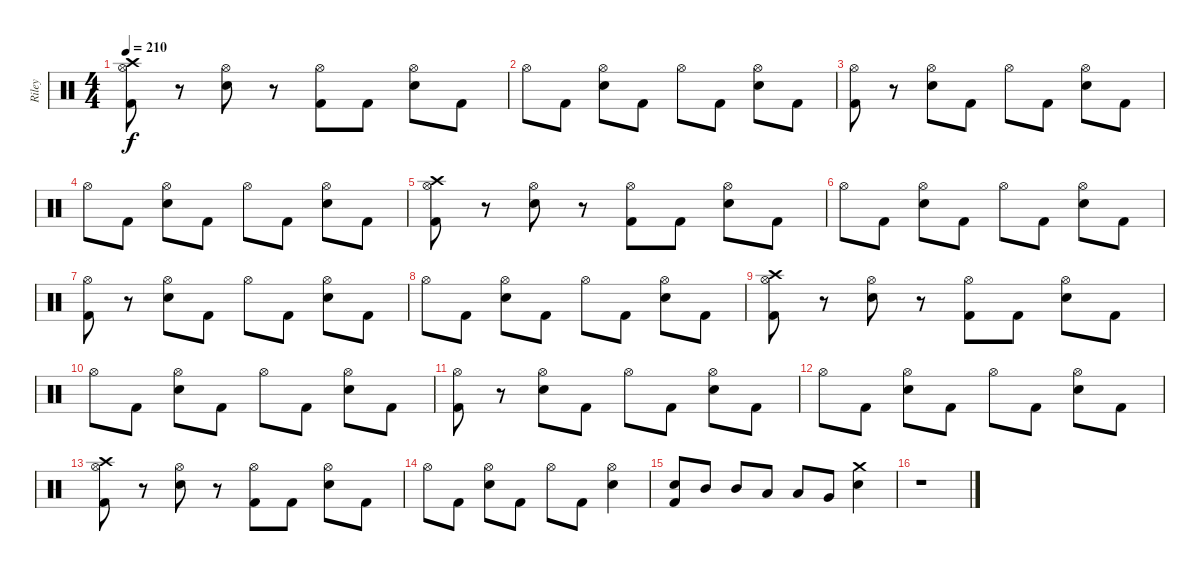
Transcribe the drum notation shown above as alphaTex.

\track ("Riley" "Riley") {instrument percussion}
\staff {score}
\articulation defaults
\ts (4 4)
\tempo 210
\clef neutral
\ks c
("Crash high (hit)" "Hi-Hat (open)" "Kick (hit) 2").8{dy f} r.8 ("Hi-Hat (open)" "Electric Snare (hit)").8 r.8 ("Hi-Hat (open)" "Kick (hit) 2").8 "Kick (hit) 2".8 ("Hi-Hat (open)" "Electric Snare (hit)").8 "Kick (hit) 2".8 |
"Hi-Hat (open)".8 "Kick (hit) 2".8 ("Hi-Hat (open)" "Electric Snare (hit)").8 "Kick (hit) 2".8 "Hi-Hat (open)".8 "Kick (hit) 2".8 ("Hi-Hat (open)" "Electric Snare (hit)").8 "Kick (hit) 2".8 |
("Hi-Hat (open)" "Kick (hit) 2").8 r.8 ("Hi-Hat (open)" "Electric Snare (hit)").8 "Kick (hit) 2".8 "Hi-Hat (open)".8 "Kick (hit) 2".8 ("Hi-Hat (open)" "Electric Snare (hit)").8 "Kick (hit) 2".8 |
"Hi-Hat (open)".8 "Kick (hit) 2".8 ("Hi-Hat (open)" "Electric Snare (hit)").8 "Kick (hit) 2".8 "Hi-Hat (open)".8 "Kick (hit) 2".8 ("Hi-Hat (open)" "Electric Snare (hit)").8 "Kick (hit) 2".8 |
("Crash high (hit)" "Hi-Hat (open)" "Kick (hit) 2").8 r.8 ("Hi-Hat (open)" "Electric Snare (hit)").8 r.8 ("Hi-Hat (open)" "Kick (hit) 2").8 "Kick (hit) 2".8 ("Hi-Hat (open)" "Electric Snare (hit)").8 "Kick (hit) 2".8 |
"Hi-Hat (open)".8 "Kick (hit) 2".8 ("Hi-Hat (open)" "Electric Snare (hit)").8 "Kick (hit) 2".8 "Hi-Hat (open)".8 "Kick (hit) 2".8 ("Hi-Hat (open)" "Electric Snare (hit)").8 "Kick (hit) 2".8 |
("Hi-Hat (open)" "Kick (hit) 2").8 r.8 ("Hi-Hat (open)" "Electric Snare (hit)").8 "Kick (hit) 2".8 "Hi-Hat (open)".8 "Kick (hit) 2".8 ("Hi-Hat (open)" "Electric Snare (hit)").8 "Kick (hit) 2".8 |
"Hi-Hat (open)".8 "Kick (hit) 2".8 ("Hi-Hat (open)" "Electric Snare (hit)").8 "Kick (hit) 2".8 "Hi-Hat (open)".8 "Kick (hit) 2".8 ("Hi-Hat (open)" "Electric Snare (hit)").8 "Kick (hit) 2".8 |
("Crash high (hit)" "Hi-Hat (open)" "Kick (hit) 2").8 r.8 ("Hi-Hat (open)" "Electric Snare (hit)").8 r.8 ("Hi-Hat (open)" "Kick (hit) 2").8 "Kick (hit) 2".8 ("Hi-Hat (open)" "Electric Snare (hit)").8 "Kick (hit) 2".8 |
"Hi-Hat (open)".8 "Kick (hit) 2".8 ("Hi-Hat (open)" "Electric Snare (hit)").8 "Kick (hit) 2".8 "Hi-Hat (open)".8 "Kick (hit) 2".8 ("Hi-Hat (open)" "Electric Snare (hit)").8 "Kick (hit) 2".8 |
("Hi-Hat (open)" "Kick (hit) 2").8 r.8 ("Hi-Hat (open)" "Electric Snare (hit)").8 "Kick (hit) 2".8 "Hi-Hat (open)".8 "Kick (hit) 2".8 ("Hi-Hat (open)" "Electric Snare (hit)").8 "Kick (hit) 2".8 |
"Hi-Hat (open)".8 "Kick (hit) 2".8 ("Hi-Hat (open)" "Electric Snare (hit)").8 "Kick (hit) 2".8 "Hi-Hat (open)".8 "Kick (hit) 2".8 ("Hi-Hat (open)" "Electric Snare (hit)").8 "Kick (hit) 2".8 |
("Crash high (hit)" "Hi-Hat (open)" "Kick (hit) 2").8 r.8 ("Hi-Hat (open)" "Electric Snare (hit)").8 r.8 ("Hi-Hat (open)" "Kick (hit) 2").8 "Kick (hit) 2".8 ("Hi-Hat (open)" "Electric Snare (hit)").8 "Kick (hit) 2".8 |
"Hi-Hat (open)".8 "Kick (hit) 2".8 ("Hi-Hat (open)" "Electric Snare (hit)").8 "Kick (hit) 2".8 "Hi-Hat (open)".8 "Kick (hit) 2".8 ("Hi-Hat (open)" "Electric Snare (hit)").4 |
("Electric Snare (hit)" "Kick (hit) 2").8 "Mid Tom (hit)".8 "Mid Tom (hit)".8 "Low Tom (hit)".8 "Low Tom (hit)".8 "Very Low Tom (hit)".8 ("Crash medium (hit)" "Electric Snare (hit)").4 |
r.1
